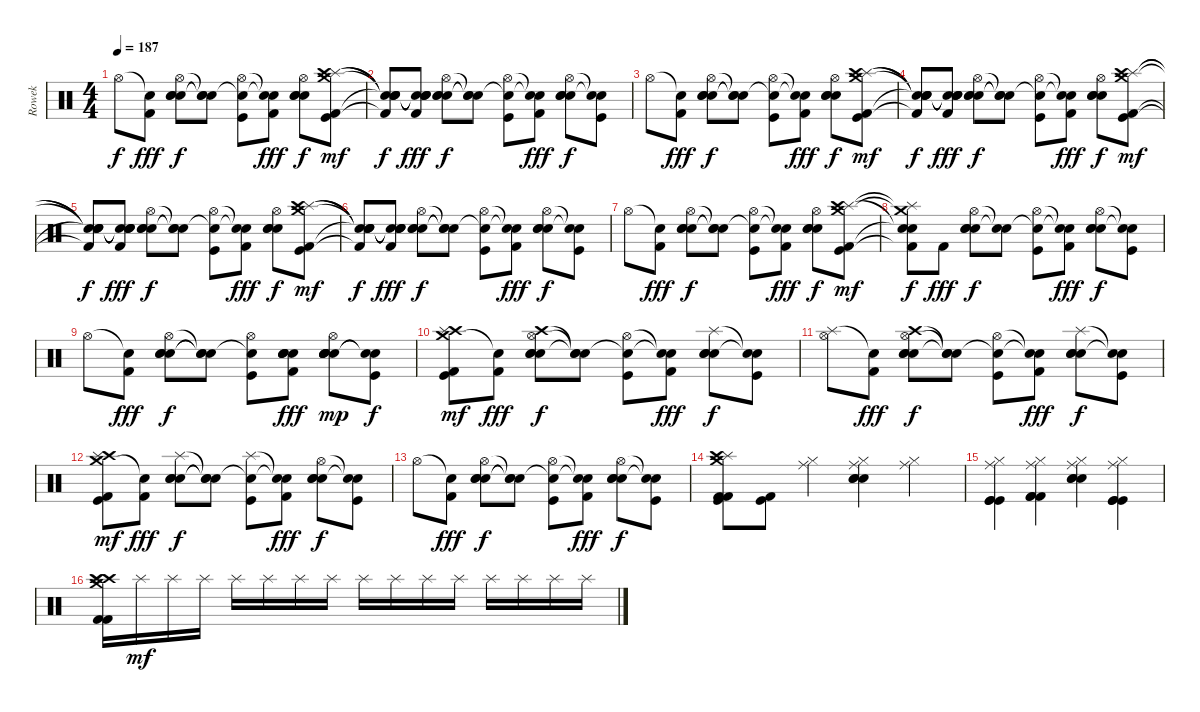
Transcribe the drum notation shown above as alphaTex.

\track ("Rowek" "Rowek") {instrument percussion}
\staff {score}
\articulation defaults
\ts (4 4)
\tempo 187
\clef neutral
\ks c "Hi-Hat (open)".8{dy f}
("Snare (hit)"{t} "Kick (hit) 2").8{dy fff} ("Hi-Hat (open)" "Electric Snare (hit)" "Electric Snare (hit)" "Electric Snare (hit)").8{dy f} ("Snare (hit)"{t} "Snare (hit)"{t} "Snare (hit)"{t}).8 ("Hi-Hat (open)" "Snare (hit)"{t} "Kick (hit)").8 ("Snare (hit)"{t} "Snare (hit)"{t} "Kick (hit) 2").8{dy fff} ("Hi-Hat (open)" "Electric Snare (hit)" "Electric Snare (hit)" "Electric Snare (hit)").8{dy f} ("Crash medium (hit)" "Splash (hit)" "Crash high (hit)" "Kick (hit) 2" "Kick (hit)").8{dy mf} |
("Snare (hit)"{t} "Snare (hit)"{t} "Snare (hit)"{t} "Snare (hit)"{t} "Kick (hit) 2"{t}).8{dy f} ("Snare (hit)"{t} "Snare (hit)"{t} "Snare (hit)"{t} "Snare (hit)"{t} "Kick (hit) 2").8{dy fff} ("Hi-Hat (open)" "Electric Snare (hit)" "Electric Snare (hit)" "Electric Snare (hit)").8{dy f} ("Snare (hit)"{t} "Snare (hit)"{t} "Snare (hit)"{t}).8 ("Hi-Hat (open)" "Snare (hit)"{t} "Kick (hit)").8 ("Snare (hit)"{t} "Snare (hit)"{t} "Kick (hit) 2").8{dy fff} ("Hi-Hat (open)" "Electric Snare (hit)" "Electric Snare (hit)" "Electric Snare (hit)").8{dy f} ("Snare (hit)"{t} "Snare (hit)"{t} "Kick (hit)").8 |
"Hi-Hat (open)".8 ("Snare (hit)"{t} "Kick (hit) 2").8{dy fff} ("Hi-Hat (open)" "Electric Snare (hit)" "Electric Snare (hit)" "Electric Snare (hit)").8{dy f} ("Snare (hit)"{t} "Snare (hit)"{t} "Snare (hit)"{t}).8 ("Hi-Hat (open)" "Snare (hit)"{t} "Kick (hit)").8 ("Snare (hit)"{t} "Snare (hit)"{t} "Kick (hit) 2").8{dy fff} ("Hi-Hat (open)" "Electric Snare (hit)" "Electric Snare (hit)" "Electric Snare (hit)").8{dy f} ("Crash medium (hit)" "Splash (hit)" "Crash high (hit)" "Kick (hit) 2" "Kick (hit)").8{dy mf} |
("Snare (hit)"{t} "Snare (hit)"{t} "Snare (hit)"{t} "Snare (hit)"{t} "Kick (hit) 2"{t}).8{dy f} ("Snare (hit)"{t} "Snare (hit)"{t} "Snare (hit)"{t} "Snare (hit)"{t} "Kick (hit) 2").8{dy fff} ("Hi-Hat (open)" "Electric Snare (hit)" "Electric Snare (hit)" "Electric Snare (hit)").8{dy f} ("Snare (hit)"{t} "Snare (hit)"{t} "Snare (hit)"{t}).8 ("Hi-Hat (open)" "Snare (hit)"{t} "Kick (hit)").8 ("Snare (hit)"{t} "Snare (hit)"{t} "Kick (hit) 2").8{dy fff} ("Hi-Hat (open)" "Electric Snare (hit)" "Electric Snare (hit)" "Electric Snare (hit)").8{dy f} ("Crash medium (hit)" "Splash (hit)" "Crash high (hit)" "Kick (hit) 2" "Kick (hit)").8{dy mf} |
("Snare (hit)"{t} "Snare (hit)"{t} "Snare (hit)"{t} "Snare (hit)"{t} "Kick (hit) 2"{t}).8{dy f} ("Snare (hit)"{t} "Snare (hit)"{t} "Snare (hit)"{t} "Snare (hit)"{t} "Kick (hit) 2").8{dy fff} ("Hi-Hat (open)" "Electric Snare (hit)" "Electric Snare (hit)" "Electric Snare (hit)").8{dy f} ("Snare (hit)"{t} "Snare (hit)"{t} "Snare (hit)"{t}).8 ("Hi-Hat (open)" "Snare (hit)"{t} "Kick (hit)").8 ("Snare (hit)"{t} "Snare (hit)"{t} "Kick (hit) 2").8{dy fff} ("Hi-Hat (open)" "Electric Snare (hit)" "Electric Snare (hit)" "Electric Snare (hit)").8{dy f} ("Crash medium (hit)" "Splash (hit)" "Crash high (hit)" "Kick (hit) 2" "Kick (hit)").8{dy mf} |
("Snare (hit)"{t} "Snare (hit)"{t} "Snare (hit)"{t} "Snare (hit)"{t} "Kick (hit) 2"{t}).8{dy f} ("Snare (hit)"{t} "Snare (hit)"{t} "Snare (hit)"{t} "Snare (hit)"{t} "Kick (hit) 2").8{dy fff} ("Hi-Hat (open)" "Electric Snare (hit)" "Electric Snare (hit)" "Electric Snare (hit)").8{dy f} ("Snare (hit)"{t} "Snare (hit)"{t} "Snare (hit)"{t}).8 ("Hi-Hat (open)" "Snare (hit)"{t} "Kick (hit)").8 ("Snare (hit)"{t} "Snare (hit)"{t} "Kick (hit) 2").8{dy fff} ("Hi-Hat (open)" "Electric Snare (hit)" "Electric Snare (hit)" "Electric Snare (hit)").8{dy f} ("Snare (hit)"{t} "Snare (hit)"{t} "Kick (hit)").8 |
"Hi-Hat (open)".8 ("Snare (hit)"{t} "Kick (hit) 2").8{dy fff} ("Hi-Hat (open)" "Electric Snare (hit)" "Electric Snare (hit)" "Electric Snare (hit)").8{dy f} ("Snare (hit)"{t} "Snare (hit)"{t} "Snare (hit)"{t}).8 ("Hi-Hat (open)" "Snare (hit)"{t} "Kick (hit)").8 ("Snare (hit)"{t} "Snare (hit)"{t} "Kick (hit) 2").8{dy fff} ("Hi-Hat (open)" "Electric Snare (hit)" "Electric Snare (hit)" "Electric Snare (hit)").8{dy f} ("Crash medium (hit)" "Splash (hit)" "Crash high (hit)" "Kick (hit) 2" "Kick (hit)").8{dy mf} |
("Crash medium (hit)"{t} "Splash (hit)"{t} "Snare (hit)"{t} "Snare (hit)"{t} "Kick (hit) 2"{t}).8{dy f} "Kick (hit) 2".8{dy fff} ("Hi-Hat (open)" "Electric Snare (hit)" "Electric Snare (hit)" "Electric Snare (hit)").8{dy f} ("Snare (hit)"{t} "Snare (hit)"{t}).8 ("Hi-Hat (open)" "Snare (hit)"{t} "Kick (hit)").8 ("Snare (hit)"{t} "Snare (hit)"{t} "Kick (hit) 2").8{dy fff} ("Hi-Hat (open)" "Electric Snare (hit)" "Electric Snare (hit)" "Electric Snare (hit)").8{dy f} ("Snare (hit)"{t} "Snare (hit)"{t} "Kick (hit)").8 |
"Hi-Hat (open)".8 ("Snare (hit)"{t} "Kick (hit) 2").8{dy fff} ("Hi-Hat (open)" "Electric Snare (hit)" "Electric Snare (hit)" "Electric Snare (hit)").8{dy f} ("Snare (hit)"{t} "Snare (hit)"{t} "Snare (hit)"{t}).8 ("Hi-Hat (open)" "Snare (hit)"{t} "Kick (hit)").8 ("Electric Snare (hit)" "Electric Snare (hit)" "Electric Snare (hit)" "Snare (hit) 2" "Kick (hit) 2").8{dy fff} ("Electric Snare (hit)" "Electric Snare (hit)" "Hi-Hat (open)" "Electric Snare (hit)" "Snare (hit) 2" "Snare (hit)").8{dy mp} ("Snare (hit)"{t} "Snare (hit)"{t} "Kick (hit)").8{dy f} |
("Crash medium (hit)" "Crash high (hit)" "Splash (hit)" "Kick (hit) 2" "Kick (hit)").8{dy mf} ("Snare (hit)"{t} "Kick (hit) 2").8{dy fff} ("Crash high (hit)" "Hi-Hat (open)" "Electric Snare (hit)" "Electric Snare (hit)" "Electric Snare (hit)").8{dy f} ("Snare (hit)"{t} "Snare (hit)"{t} "Snare (hit)"{t}).8 ("Hi-Hat (open)" "Snare (hit)"{t} "Kick (hit)").8 ("Snare (hit)"{t} "Snare (hit)"{t} "Kick (hit) 2").8{dy fff} ("Splash (hit)" "Electric Snare (hit)" "Electric Snare (hit)" "Electric Snare (hit)").8{dy f} ("Snare (hit)"{t} "Snare (hit)"{t} "Kick (hit)").8 |
("Splash (hit)" "Hi-Hat (open)").8 ("Snare (hit)"{t} "Kick (hit) 2").8{dy fff} ("Crash high (hit)" "Hi-Hat (open)" "Electric Snare (hit)" "Electric Snare (hit)" "Electric Snare (hit)").8{dy f} ("Snare (hit)"{t} "Snare (hit)"{t} "Snare (hit)"{t}).8 ("Hi-Hat (open)" "Snare (hit)"{t} "Kick (hit)").8 ("Snare (hit)"{t} "Snare (hit)"{t} "Kick (hit) 2").8{dy fff} ("Splash (hit)" "Electric Snare (hit)" "Electric Snare (hit)" "Electric Snare (hit)").8{dy f} ("Snare (hit)"{t} "Snare (hit)"{t} "Kick (hit)").8 |
("Crash medium (hit)" "Crash high (hit)" "Splash (hit)" "Kick (hit) 2" "Kick (hit)").8{dy mf} ("Snare (hit)"{t} "Kick (hit) 2").8{dy fff} ("Splash (hit)" "Electric Snare (hit)" "Electric Snare (hit)" "Electric Snare (hit)").8{dy f} ("Snare (hit)"{t} "Snare (hit)"{t} "Snare (hit)"{t}).8 ("Splash (hit)" "Snare (hit)"{t} "Kick (hit)").8 ("Snare (hit)"{t} "Snare (hit)"{t} "Kick (hit) 2").8{dy fff} ("Hi-Hat (open)" "Electric Snare (hit)" "Electric Snare (hit)" "Electric Snare (hit)").8{dy f} ("Snare (hit)"{t} "Snare (hit)"{t} "Kick (hit)").8 |
"Hi-Hat (open)".8 ("Snare (hit)"{t} "Kick (hit) 2").8{dy fff} ("Hi-Hat (open)" "Electric Snare (hit)" "Electric Snare (hit)" "Electric Snare (hit)").8{dy f} ("Snare (hit)"{t} "Snare (hit)"{t} "Snare (hit)"{t}).8 ("Hi-Hat (open)" "Snare (hit)"{t} "Kick (hit)").8 ("Snare (hit)"{t} "Snare (hit)"{t} "Kick (hit) 2").8{dy fff} ("Hi-Hat (open)" "Electric Snare (hit)" "Electric Snare (hit)" "Electric Snare (hit)").8{dy f} ("Snare (hit)"{t} "Snare (hit)"{t} "Kick (hit)").8 |
("Crash medium (hit)" "Splash (hit)" "Crash high (hit)" "Kick (hit)" "Kick (hit) 2" "Kick (hit) 2").8 ("Kick (hit)" "Kick (hit) 2").8 ("Ride (middle)" "Hi-Hat (closed)").4 ("Ride (middle)" "Hi-Hat (closed)" "Electric Snare (hit)" "Electric Snare (hit)" "Electric Snare (hit)").4 ("Ride (middle)" "Hi-Hat (closed)").4 |
("Hi-Hat (closed)" "Ride (middle)" "Kick (hit)" "Kick (hit)" "Kick (hit)").4 ("Hi-Hat (closed)" "Ride (middle)" "Kick (hit) 2" "Kick (hit) 2" "Kick (hit) 2").4 ("Ride (middle)" "Hi-Hat (closed)" "Electric Snare (hit)" "Electric Snare (hit)" "Electric Snare (hit)").4 ("Hi-Hat (closed)" "Ride (middle)" "Kick (hit)" "Kick (hit)" "Kick (hit)").4 |
("Crash medium (hit)" "Crash high (hit)" "Crash high (hit)" "Splash (hit)" "Kick (hit) 2" "Kick (hit) 2").16 "Splash (hit)".16{dy mf} "Splash (hit)".16 "Splash (hit)".16 "Splash (hit)".16 "Splash (hit)".16 "Splash (hit)".16 "Splash (hit)".16 "Splash (hit)".16 "Splash (hit)".16 "Splash (hit)".16 "Splash (hit)".16 "Splash (hit)".16 "Splash (hit)".16 "Splash (hit)".16 "Splash (hit)".16
